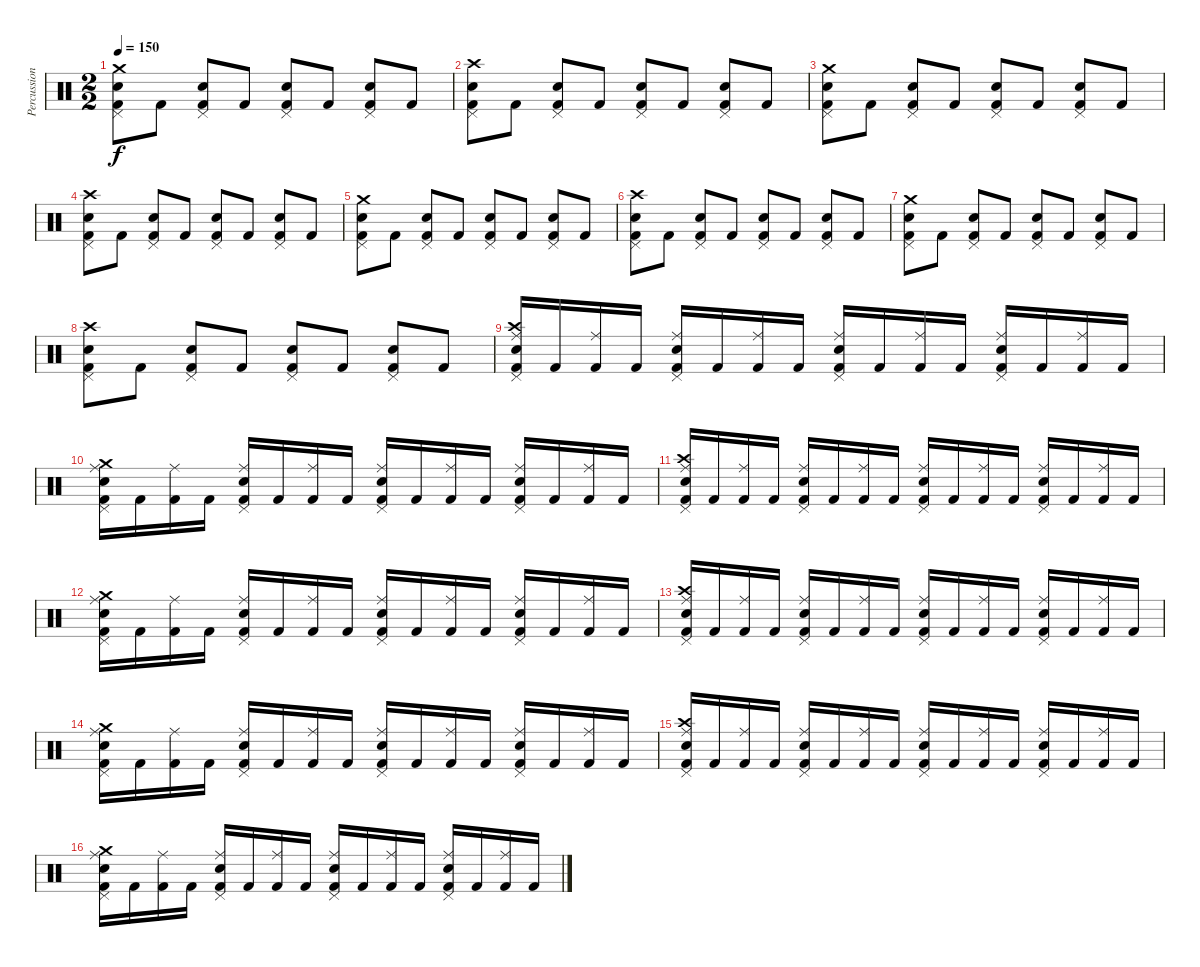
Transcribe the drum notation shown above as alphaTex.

\track ("Percussion" "Percussion") {instrument percussion}
\staff {score}
\articulation defaults
\ts (2 2)
\tempo 150
\clef neutral
\ks c
("Crash medium (hit)" "Pedal Hi-Hat (hit)" "Snare (hit) 2" "Kick (hit) 2").8{dy f} "Kick (hit) 2".8 ("Pedal Hi-Hat (hit)" "Snare (hit) 2" "Kick (hit) 2").8 "Kick (hit) 2".8 ("Pedal Hi-Hat (hit)" "Snare (hit) 2" "Kick (hit) 2").8 "Kick (hit) 2".8 ("Pedal Hi-Hat (hit)" "Snare (hit) 2" "Kick (hit) 2").8 "Kick (hit) 2".8 |
("Crash high (hit)" "Pedal Hi-Hat (hit)" "Snare (hit) 2" "Kick (hit) 2").8 "Kick (hit) 2".8 ("Pedal Hi-Hat (hit)" "Snare (hit) 2" "Kick (hit) 2").8 "Kick (hit) 2".8 ("Pedal Hi-Hat (hit)" "Snare (hit) 2" "Kick (hit) 2").8 "Kick (hit) 2".8 ("Pedal Hi-Hat (hit)" "Snare (hit) 2" "Kick (hit) 2").8 "Kick (hit) 2".8 |
("Crash medium (hit)" "Pedal Hi-Hat (hit)" "Snare (hit) 2" "Kick (hit) 2").8 "Kick (hit) 2".8 ("Pedal Hi-Hat (hit)" "Snare (hit) 2" "Kick (hit) 2").8 "Kick (hit) 2".8 ("Pedal Hi-Hat (hit)" "Snare (hit) 2" "Kick (hit) 2").8 "Kick (hit) 2".8 ("Pedal Hi-Hat (hit)" "Snare (hit) 2" "Kick (hit) 2").8 "Kick (hit) 2".8 |
("Crash high (hit)" "Pedal Hi-Hat (hit)" "Snare (hit) 2" "Kick (hit) 2").8 "Kick (hit) 2".8 ("Pedal Hi-Hat (hit)" "Snare (hit) 2" "Kick (hit) 2").8 "Kick (hit) 2".8 ("Pedal Hi-Hat (hit)" "Snare (hit) 2" "Kick (hit) 2").8 "Kick (hit) 2".8 ("Pedal Hi-Hat (hit)" "Snare (hit) 2" "Kick (hit) 2").8 "Kick (hit) 2".8 |
("Crash medium (hit)" "Pedal Hi-Hat (hit)" "Snare (hit) 2" "Kick (hit) 2").8 "Kick (hit) 2".8 ("Pedal Hi-Hat (hit)" "Snare (hit) 2" "Kick (hit) 2").8 "Kick (hit) 2".8 ("Pedal Hi-Hat (hit)" "Snare (hit) 2" "Kick (hit) 2").8 "Kick (hit) 2".8 ("Pedal Hi-Hat (hit)" "Snare (hit) 2" "Kick (hit) 2").8 "Kick (hit) 2".8 |
("Crash high (hit)" "Pedal Hi-Hat (hit)" "Snare (hit) 2" "Kick (hit) 2").8 "Kick (hit) 2".8 ("Pedal Hi-Hat (hit)" "Snare (hit) 2" "Kick (hit) 2").8 "Kick (hit) 2".8 ("Pedal Hi-Hat (hit)" "Snare (hit) 2" "Kick (hit) 2").8 "Kick (hit) 2".8 ("Pedal Hi-Hat (hit)" "Snare (hit) 2" "Kick (hit) 2").8 "Kick (hit) 2".8 |
("Crash medium (hit)" "Pedal Hi-Hat (hit)" "Snare (hit) 2" "Kick (hit) 2").8 "Kick (hit) 2".8 ("Pedal Hi-Hat (hit)" "Snare (hit) 2" "Kick (hit) 2").8 "Kick (hit) 2".8 ("Pedal Hi-Hat (hit)" "Snare (hit) 2" "Kick (hit) 2").8 "Kick (hit) 2".8 ("Pedal Hi-Hat (hit)" "Snare (hit) 2" "Kick (hit) 2").8 "Kick (hit) 2".8 |
("Crash high (hit)" "Pedal Hi-Hat (hit)" "Snare (hit) 2" "Kick (hit) 2").8 "Kick (hit) 2".8 ("Pedal Hi-Hat (hit)" "Snare (hit) 2" "Kick (hit) 2").8 "Kick (hit) 2".8 ("Pedal Hi-Hat (hit)" "Snare (hit) 2" "Kick (hit) 2").8 "Kick (hit) 2".8 ("Pedal Hi-Hat (hit)" "Snare (hit) 2" "Kick (hit) 2").8 "Kick (hit) 2".8 |
("Ride (middle)" "Crash high (hit)" "Pedal Hi-Hat (hit)" "Snare (hit) 2" "Kick (hit) 2").16 "Kick (hit) 2".16 ("Ride (middle)" "Kick (hit) 2").16 "Kick (hit) 2".16 ("Ride (middle)" "Pedal Hi-Hat (hit)" "Snare (hit) 2" "Kick (hit) 2").16 "Kick (hit) 2".16 ("Ride (middle)" "Kick (hit) 2").16 "Kick (hit) 2".16 ("Ride (middle)" "Pedal Hi-Hat (hit)" "Snare (hit) 2" "Kick (hit) 2").16 "Kick (hit) 2".16 ("Ride (middle)" "Kick (hit) 2").16 "Kick (hit) 2".16 ("Ride (middle)" "Pedal Hi-Hat (hit)" "Snare (hit) 2" "Kick (hit) 2").16 "Kick (hit) 2".16 ("Ride (middle)" "Kick (hit) 2").16 "Kick (hit) 2".16 |
("Ride (middle)" "Crash medium (hit)" "Pedal Hi-Hat (hit)" "Snare (hit) 2" "Kick (hit) 2").16 "Kick (hit) 2".16 ("Ride (middle)" "Kick (hit) 2").16 "Kick (hit) 2".16 ("Ride (middle)" "Pedal Hi-Hat (hit)" "Snare (hit) 2" "Kick (hit) 2").16 "Kick (hit) 2".16 ("Ride (middle)" "Kick (hit) 2").16 "Kick (hit) 2".16 ("Ride (middle)" "Pedal Hi-Hat (hit)" "Snare (hit) 2" "Kick (hit) 2").16 "Kick (hit) 2".16 ("Ride (middle)" "Kick (hit) 2").16 "Kick (hit) 2".16 ("Ride (middle)" "Pedal Hi-Hat (hit)" "Snare (hit) 2" "Kick (hit) 2").16 "Kick (hit) 2".16 ("Ride (middle)" "Kick (hit) 2").16 "Kick (hit) 2".16 |
("Ride (middle)" "Crash high (hit)" "Pedal Hi-Hat (hit)" "Snare (hit) 2" "Kick (hit) 2").16 "Kick (hit) 2".16 ("Ride (middle)" "Kick (hit) 2").16 "Kick (hit) 2".16 ("Ride (middle)" "Pedal Hi-Hat (hit)" "Snare (hit) 2" "Kick (hit) 2").16 "Kick (hit) 2".16 ("Ride (middle)" "Kick (hit) 2").16 "Kick (hit) 2".16 ("Ride (middle)" "Pedal Hi-Hat (hit)" "Snare (hit) 2" "Kick (hit) 2").16 "Kick (hit) 2".16 ("Ride (middle)" "Kick (hit) 2").16 "Kick (hit) 2".16 ("Ride (middle)" "Pedal Hi-Hat (hit)" "Snare (hit) 2" "Kick (hit) 2").16 "Kick (hit) 2".16 ("Ride (middle)" "Kick (hit) 2").16 "Kick (hit) 2".16 |
("Ride (middle)" "Crash medium (hit)" "Pedal Hi-Hat (hit)" "Snare (hit) 2" "Kick (hit) 2").16 "Kick (hit) 2".16 ("Ride (middle)" "Kick (hit) 2").16 "Kick (hit) 2".16 ("Ride (middle)" "Pedal Hi-Hat (hit)" "Snare (hit) 2" "Kick (hit) 2").16 "Kick (hit) 2".16 ("Ride (middle)" "Kick (hit) 2").16 "Kick (hit) 2".16 ("Ride (middle)" "Pedal Hi-Hat (hit)" "Snare (hit) 2" "Kick (hit) 2").16 "Kick (hit) 2".16 ("Ride (middle)" "Kick (hit) 2").16 "Kick (hit) 2".16 ("Ride (middle)" "Pedal Hi-Hat (hit)" "Snare (hit) 2" "Kick (hit) 2").16 "Kick (hit) 2".16 ("Ride (middle)" "Kick (hit) 2").16 "Kick (hit) 2".16 |
("Ride (middle)" "Crash high (hit)" "Pedal Hi-Hat (hit)" "Snare (hit) 2" "Kick (hit) 2").16 "Kick (hit) 2".16 ("Ride (middle)" "Kick (hit) 2").16 "Kick (hit) 2".16 ("Ride (middle)" "Pedal Hi-Hat (hit)" "Snare (hit) 2" "Kick (hit) 2").16 "Kick (hit) 2".16 ("Ride (middle)" "Kick (hit) 2").16 "Kick (hit) 2".16 ("Ride (middle)" "Pedal Hi-Hat (hit)" "Snare (hit) 2" "Kick (hit) 2").16 "Kick (hit) 2".16 ("Ride (middle)" "Kick (hit) 2").16 "Kick (hit) 2".16 ("Ride (middle)" "Pedal Hi-Hat (hit)" "Snare (hit) 2" "Kick (hit) 2").16 "Kick (hit) 2".16 ("Ride (middle)" "Kick (hit) 2").16 "Kick (hit) 2".16 |
("Ride (middle)" "Crash medium (hit)" "Pedal Hi-Hat (hit)" "Snare (hit) 2" "Kick (hit) 2").16 "Kick (hit) 2".16 ("Ride (middle)" "Kick (hit) 2").16 "Kick (hit) 2".16 ("Ride (middle)" "Pedal Hi-Hat (hit)" "Snare (hit) 2" "Kick (hit) 2").16 "Kick (hit) 2".16 ("Ride (middle)" "Kick (hit) 2").16 "Kick (hit) 2".16 ("Ride (middle)" "Pedal Hi-Hat (hit)" "Snare (hit) 2" "Kick (hit) 2").16 "Kick (hit) 2".16 ("Ride (middle)" "Kick (hit) 2").16 "Kick (hit) 2".16 ("Ride (middle)" "Pedal Hi-Hat (hit)" "Snare (hit) 2" "Kick (hit) 2").16 "Kick (hit) 2".16 ("Ride (middle)" "Kick (hit) 2").16 "Kick (hit) 2".16 |
("Ride (middle)" "Crash high (hit)" "Pedal Hi-Hat (hit)" "Snare (hit) 2" "Kick (hit) 2").16 "Kick (hit) 2".16 ("Ride (middle)" "Kick (hit) 2").16 "Kick (hit) 2".16 ("Ride (middle)" "Pedal Hi-Hat (hit)" "Snare (hit) 2" "Kick (hit) 2").16 "Kick (hit) 2".16 ("Ride (middle)" "Kick (hit) 2").16 "Kick (hit) 2".16 ("Ride (middle)" "Pedal Hi-Hat (hit)" "Snare (hit) 2" "Kick (hit) 2").16 "Kick (hit) 2".16 ("Ride (middle)" "Kick (hit) 2").16 "Kick (hit) 2".16 ("Ride (middle)" "Pedal Hi-Hat (hit)" "Snare (hit) 2" "Kick (hit) 2").16 "Kick (hit) 2".16 ("Ride (middle)" "Kick (hit) 2").16 "Kick (hit) 2".16 |
("Ride (middle)" "Crash medium (hit)" "Pedal Hi-Hat (hit)" "Snare (hit) 2" "Kick (hit) 2").16 "Kick (hit) 2".16 ("Ride (middle)" "Kick (hit) 2").16 "Kick (hit) 2".16 ("Ride (middle)" "Pedal Hi-Hat (hit)" "Snare (hit) 2" "Kick (hit) 2").16 "Kick (hit) 2".16 ("Ride (middle)" "Kick (hit) 2").16 "Kick (hit) 2".16 ("Ride (middle)" "Pedal Hi-Hat (hit)" "Snare (hit) 2" "Kick (hit) 2").16 "Kick (hit) 2".16 ("Ride (middle)" "Kick (hit) 2").16 "Kick (hit) 2".16 ("Ride (middle)" "Pedal Hi-Hat (hit)" "Snare (hit) 2" "Kick (hit) 2").16 "Kick (hit) 2".16 ("Ride (middle)" "Kick (hit) 2").16 "Kick (hit) 2".16
